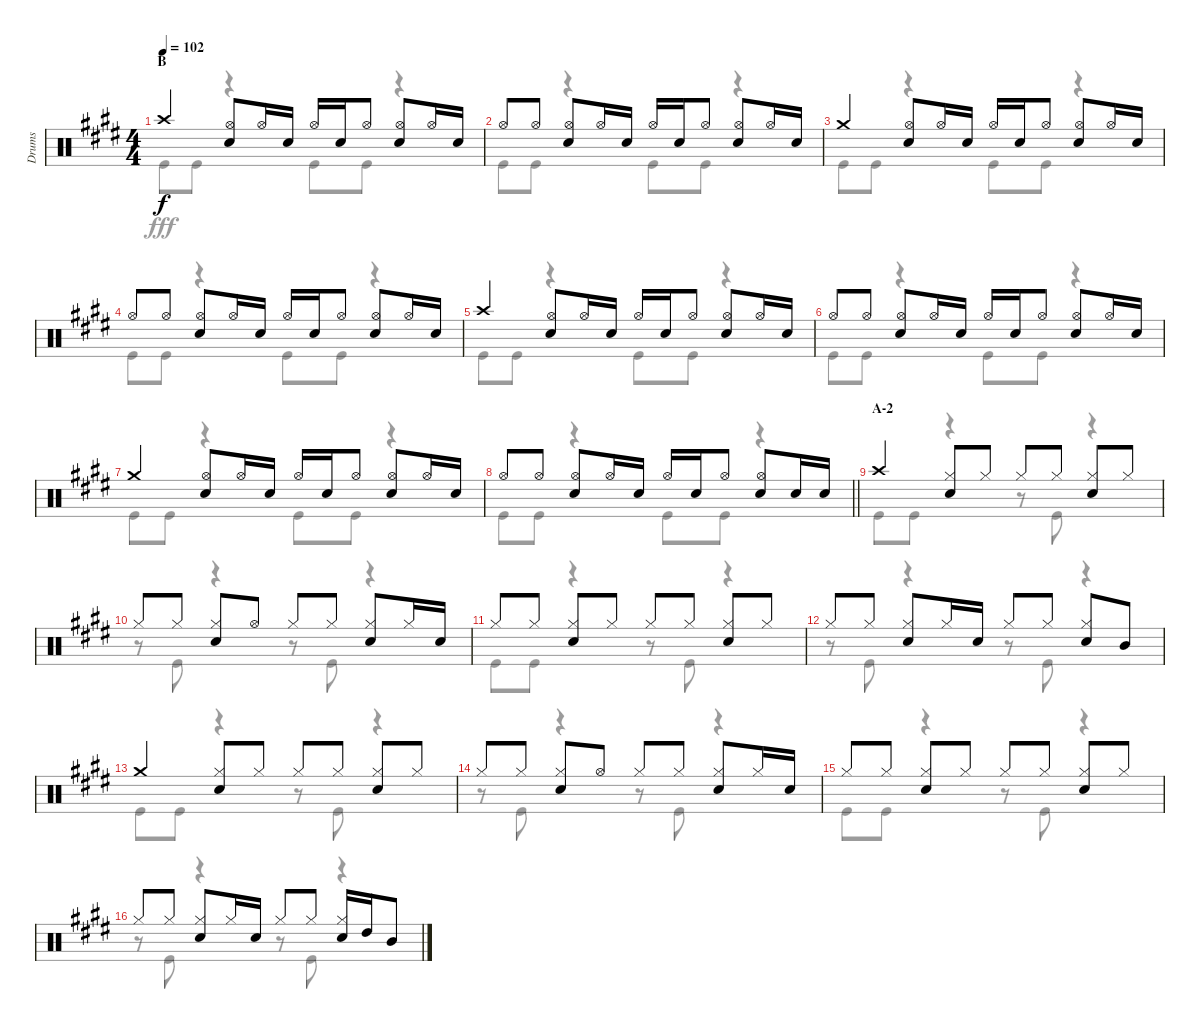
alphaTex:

\track ("Drums" "Drums") {instrument percussion}
\staff {score}
\articulation defaults
\voice
\ts (4 4)
\section ("" "B")
\tempo 102
\clef neutral
\ks e "Crash high (hit)".4{dy f}
("Hi-Hat (open)" "Snare (hit) 2").8 "Hi-Hat (open)".16 "Snare (hit) 2".16 "Hi-Hat (open)".16 "Snare (hit) 2".16 "Hi-Hat (open)".8 ("Hi-Hat (open)" "Snare (hit) 2").8 "Hi-Hat (open)".16 "Snare (hit) 2".16 |
"Hi-Hat (open)".8 "Hi-Hat (open)".8 ("Hi-Hat (open)" "Snare (hit) 2").8 "Hi-Hat (open)".16 "Snare (hit) 2".16 "Hi-Hat (open)".16 "Snare (hit) 2".16 "Hi-Hat (open)".8 ("Hi-Hat (open)" "Snare (hit) 2").8 "Hi-Hat (open)".16 "Snare (hit) 2".16 |
"Crash medium (hit)".4 ("Hi-Hat (open)" "Snare (hit) 2").8 "Hi-Hat (open)".16 "Snare (hit) 2".16 "Hi-Hat (open)".16 "Snare (hit) 2".16 "Hi-Hat (open)".8 ("Hi-Hat (open)" "Snare (hit) 2").8 "Hi-Hat (open)".16 "Snare (hit) 2".16 |
"Hi-Hat (open)".8 "Hi-Hat (open)".8 ("Hi-Hat (open)" "Snare (hit) 2").8 "Hi-Hat (open)".16 "Snare (hit) 2".16 "Hi-Hat (open)".16 "Snare (hit) 2".16 "Hi-Hat (open)".8 ("Hi-Hat (open)" "Snare (hit) 2").8 "Hi-Hat (open)".16 "Snare (hit) 2".16 |
"Crash high (hit)".4 ("Hi-Hat (open)" "Snare (hit) 2").8 "Hi-Hat (open)".16 "Snare (hit) 2".16 "Hi-Hat (open)".16 "Snare (hit) 2".16 "Hi-Hat (open)".8 ("Hi-Hat (open)" "Snare (hit) 2").8 "Hi-Hat (open)".16 "Snare (hit) 2".16 |
"Hi-Hat (open)".8 "Hi-Hat (open)".8 ("Hi-Hat (open)" "Snare (hit) 2").8 "Hi-Hat (open)".16 "Snare (hit) 2".16 "Hi-Hat (open)".16 "Snare (hit) 2".16 "Hi-Hat (open)".8 ("Hi-Hat (open)" "Snare (hit) 2").8 "Hi-Hat (open)".16 "Snare (hit) 2".16 |
"Crash medium (hit)".4 ("Hi-Hat (open)" "Snare (hit) 2").8 "Hi-Hat (open)".16 "Snare (hit) 2".16 "Hi-Hat (open)".16 "Snare (hit) 2".16 "Hi-Hat (open)".8 ("Hi-Hat (open)" "Snare (hit) 2").8 "Hi-Hat (open)".16 "Snare (hit) 2".16 |
\barLineRight lightlight "Hi-Hat (open)".8 "Hi-Hat (open)".8
("Hi-Hat (open)" "Snare (hit) 2").8 "Hi-Hat (open)".16 "Snare (hit) 2".16 "Hi-Hat (open)".16 "Snare (hit) 2".16 "Hi-Hat (open)".8 ("Hi-Hat (open)" "Snare (hit) 2").8 "Snare (hit) 2".16 "Snare (hit) 2".16 |
\section ("" "A-2")
"Crash high (hit)".4 ("Hi-Hat (closed)" "Snare (hit) 2").8 "Hi-Hat (closed)".8 "Hi-Hat (closed)".8 "Hi-Hat (closed)".8 ("Hi-Hat (closed)" "Snare (hit) 2").8 "Hi-Hat (closed)".8 |
"Hi-Hat (closed)".8 "Hi-Hat (closed)".8 ("Hi-Hat (closed)" "Snare (hit) 2").8 "Hi-Hat (open)".8 "Hi-Hat (closed)".8 "Hi-Hat (closed)".8 ("Hi-Hat (closed)" "Snare (hit) 2").8 "Hi-Hat (closed)".16 "Snare (hit) 2".16 |
"Hi-Hat (closed)".8 "Hi-Hat (closed)".8 ("Hi-Hat (closed)" "Snare (hit) 2").8 "Hi-Hat (closed)".8 "Hi-Hat (closed)".8 "Hi-Hat (closed)".8 ("Hi-Hat (closed)" "Snare (hit) 2").8 "Hi-Hat (closed)".8 |
"Hi-Hat (closed)".8 "Hi-Hat (closed)".8 ("Hi-Hat (closed)" "Snare (hit) 2").8 "Hi-Hat (closed)".16 "Snare (hit) 2".16 "Hi-Hat (closed)".8 "Hi-Hat (closed)".8 ("Hi-Hat (closed)" "Snare (hit) 2").8 "Mid Tom (hit)".8 |
"Crash medium (hit)".4 ("Hi-Hat (closed)" "Snare (hit) 2").8 "Hi-Hat (closed)".8 "Hi-Hat (closed)".8 "Hi-Hat (closed)".8 ("Hi-Hat (closed)" "Snare (hit) 2").8 "Hi-Hat (closed)".8 |
"Hi-Hat (closed)".8 "Hi-Hat (closed)".8 ("Hi-Hat (closed)" "Snare (hit) 2").8 "Hi-Hat (open)".8 "Hi-Hat (closed)".8 "Hi-Hat (closed)".8 ("Hi-Hat (closed)" "Snare (hit) 2").8 "Hi-Hat (closed)".16 "Snare (hit) 2".16 |
"Hi-Hat (closed)".8 "Hi-Hat (closed)".8 ("Hi-Hat (closed)" "Snare (hit) 2").8 "Hi-Hat (closed)".8 "Hi-Hat (closed)".8 "Hi-Hat (closed)".8 ("Hi-Hat (closed)" "Snare (hit) 2").8 "Hi-Hat (closed)".8 |
"Hi-Hat (closed)".8 "Hi-Hat (closed)".8 ("Hi-Hat (closed)" "Snare (hit) 2").8 "Hi-Hat (closed)".16 "Snare (hit) 2".16 "Hi-Hat (closed)".8 "Hi-Hat (closed)".8 ("Hi-Hat (closed)" "Snare (hit) 2").16 "High Tom (hit)".16 "Mid Tom (hit)".8
\voice
\clef neutral
\ottava regular
\simile none
\ks e "Kick (hit)".8{dy fff} "Kick (hit)".8
r.4 "Kick (hit)".8 "Kick (hit)".8 r.4 |
"Kick (hit)".8 "Kick (hit)".8 r.4 "Kick (hit)".8 "Kick (hit)".8 r.4 |
"Kick (hit)".8 "Kick (hit)".8 r.4 "Kick (hit)".8 "Kick (hit)".8 r.4 |
"Kick (hit)".8 "Kick (hit)".8 r.4 "Kick (hit)".8 "Kick (hit)".8 r.4 |
"Kick (hit)".8 "Kick (hit)".8 r.4 "Kick (hit)".8 "Kick (hit)".8 r.4 |
"Kick (hit)".8 "Kick (hit)".8 r.4 "Kick (hit)".8 "Kick (hit)".8 r.4 |
"Kick (hit)".8 "Kick (hit)".8 r.4 "Kick (hit)".8 "Kick (hit)".8 r.4 |
\barLineRight lightlight "Kick (hit)".8 "Kick (hit)".8
r.4 "Kick (hit)".8 "Kick (hit)".8 r.4 |
"Kick (hit)".8 "Kick (hit)".8 r.4 r.8 "Kick (hit)".8 r.4 |
r.8 "Kick (hit)".8 r.4 r.8 "Kick (hit)".8 r.4 |
"Kick (hit)".8 "Kick (hit)".8 r.4 r.8 "Kick (hit)".8 r.4 |
r.8 "Kick (hit)".8 r.4 r.8 "Kick (hit)".8 r.4 |
"Kick (hit)".8 "Kick (hit)".8 r.4 r.8 "Kick (hit)".8 r.4 |
r.8 "Kick (hit)".8 r.4 r.8 "Kick (hit)".8 r.4 |
"Kick (hit)".8 "Kick (hit)".8 r.4 r.8 "Kick (hit)".8 r.4 |
r.8 "Kick (hit)".8 r.4 r.8 "Kick (hit)".8 r.4
